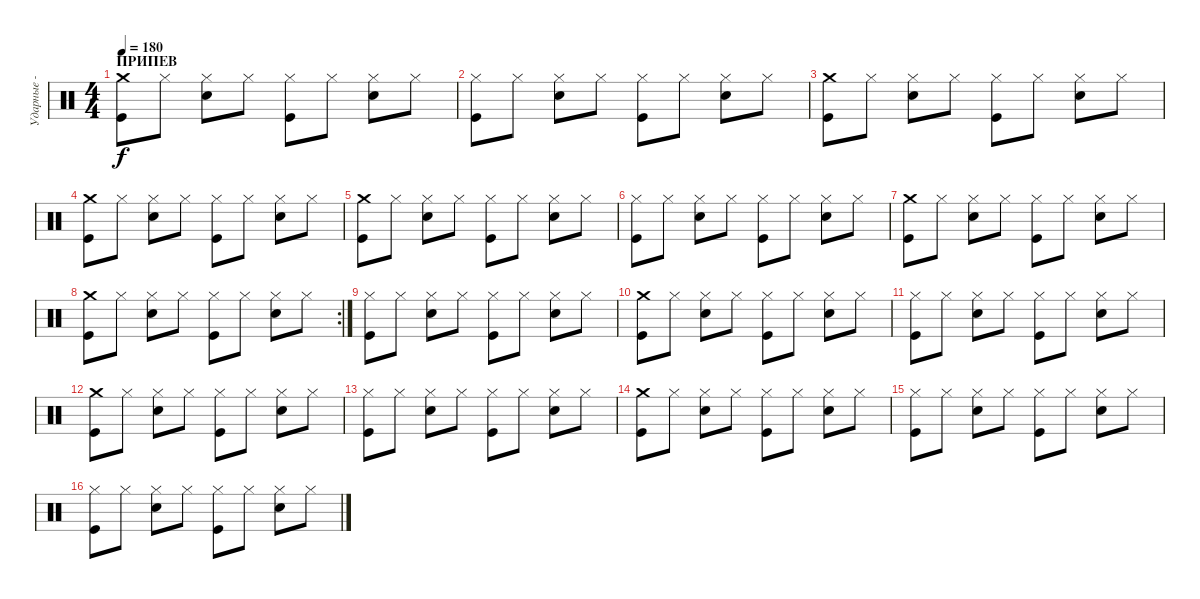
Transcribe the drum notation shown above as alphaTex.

\track ("Ударные - Томми Рамон" "Ударные - ") {instrument percussion}
\staff {score}
\articulation defaults
\ts (4 4)
\section ("" "ПРИПЕВ")
\tempo 180
\clef neutral
\ks c
("Crash medium (hit)" "Kick (hit)").8{dy f} "Hi-Hat (closed)".8 ("Hi-Hat (closed)" "Snare (hit) 2").8 "Hi-Hat (closed)".8 ("Hi-Hat (closed)" "Kick (hit)").8 "Hi-Hat (closed)".8 ("Hi-Hat (closed)" "Snare (hit) 2").8 "Hi-Hat (closed)".8 |
("Hi-Hat (closed)" "Kick (hit)").8 "Hi-Hat (closed)".8 ("Hi-Hat (closed)" "Snare (hit) 2").8 "Hi-Hat (closed)".8 ("Hi-Hat (closed)" "Kick (hit)").8 "Hi-Hat (closed)".8 ("Hi-Hat (closed)" "Snare (hit) 2").8 "Hi-Hat (closed)".8 |
("Crash medium (hit)" "Kick (hit)").8 "Hi-Hat (closed)".8 ("Hi-Hat (closed)" "Snare (hit) 2").8 "Hi-Hat (closed)".8 ("Hi-Hat (closed)" "Kick (hit)").8 "Hi-Hat (closed)".8 ("Hi-Hat (closed)" "Snare (hit) 2").8 "Hi-Hat (closed)".8 |
("Crash medium (hit)" "Kick (hit)").8 "Hi-Hat (closed)".8 ("Hi-Hat (closed)" "Snare (hit) 2").8 "Hi-Hat (closed)".8 ("Hi-Hat (closed)" "Kick (hit)").8 "Hi-Hat (closed)".8 ("Hi-Hat (closed)" "Snare (hit) 2").8 "Hi-Hat (closed)".8 |
("Crash medium (hit)" "Kick (hit)").8 "Hi-Hat (closed)".8 ("Hi-Hat (closed)" "Snare (hit) 2").8 "Hi-Hat (closed)".8 ("Hi-Hat (closed)" "Kick (hit)").8 "Hi-Hat (closed)".8 ("Hi-Hat (closed)" "Snare (hit) 2").8 "Hi-Hat (closed)".8 |
("Hi-Hat (closed)" "Kick (hit)").8 "Hi-Hat (closed)".8 ("Hi-Hat (closed)" "Snare (hit) 2").8 "Hi-Hat (closed)".8 ("Hi-Hat (closed)" "Kick (hit)").8 "Hi-Hat (closed)".8 ("Hi-Hat (closed)" "Snare (hit) 2").8 "Hi-Hat (closed)".8 |
("Crash medium (hit)" "Kick (hit)").8 "Hi-Hat (closed)".8 ("Hi-Hat (closed)" "Snare (hit) 2").8 "Hi-Hat (closed)".8 ("Hi-Hat (closed)" "Kick (hit)").8 "Hi-Hat (closed)".8 ("Hi-Hat (closed)" "Snare (hit) 2").8 "Hi-Hat (closed)".8 |
\rc 2
("Crash medium (hit)" "Kick (hit)").8 "Hi-Hat (closed)".8 ("Hi-Hat (closed)" "Snare (hit) 2").8 "Hi-Hat (closed)".8 ("Hi-Hat (closed)" "Kick (hit)").8 "Hi-Hat (closed)".8 ("Hi-Hat (closed)" "Snare (hit) 2").8 "Hi-Hat (closed)".8 |
("Hi-Hat (closed)" "Kick (hit)").8 "Hi-Hat (closed)".8 ("Hi-Hat (closed)" "Snare (hit) 2").8 "Hi-Hat (closed)".8 ("Hi-Hat (closed)" "Kick (hit)").8 "Hi-Hat (closed)".8 ("Hi-Hat (closed)" "Snare (hit) 2").8 "Hi-Hat (closed)".8 |
("Crash medium (hit)" "Kick (hit)").8 "Hi-Hat (closed)".8 ("Hi-Hat (closed)" "Snare (hit) 2").8 "Hi-Hat (closed)".8 ("Hi-Hat (closed)" "Kick (hit)").8 "Hi-Hat (closed)".8 ("Hi-Hat (closed)" "Snare (hit) 2").8 "Hi-Hat (closed)".8 |
("Hi-Hat (closed)" "Kick (hit)").8 "Hi-Hat (closed)".8 ("Hi-Hat (closed)" "Snare (hit) 2").8 "Hi-Hat (closed)".8 ("Hi-Hat (closed)" "Kick (hit)").8 "Hi-Hat (closed)".8 ("Hi-Hat (closed)" "Snare (hit) 2").8 "Hi-Hat (closed)".8 |
("Crash medium (hit)" "Kick (hit)").8 "Hi-Hat (closed)".8 ("Hi-Hat (closed)" "Snare (hit) 2").8 "Hi-Hat (closed)".8 ("Hi-Hat (closed)" "Kick (hit)").8 "Hi-Hat (closed)".8 ("Hi-Hat (closed)" "Snare (hit) 2").8 "Hi-Hat (closed)".8 |
("Hi-Hat (closed)" "Kick (hit)").8 "Hi-Hat (closed)".8 ("Hi-Hat (closed)" "Snare (hit) 2").8 "Hi-Hat (closed)".8 ("Hi-Hat (closed)" "Kick (hit)").8 "Hi-Hat (closed)".8 ("Hi-Hat (closed)" "Snare (hit) 2").8 "Hi-Hat (closed)".8 |
("Crash medium (hit)" "Kick (hit)").8 "Hi-Hat (closed)".8 ("Hi-Hat (closed)" "Snare (hit) 2").8 "Hi-Hat (closed)".8 ("Hi-Hat (closed)" "Kick (hit)").8 "Hi-Hat (closed)".8 ("Hi-Hat (closed)" "Snare (hit) 2").8 "Hi-Hat (closed)".8 |
("Hi-Hat (closed)" "Kick (hit)").8 "Hi-Hat (closed)".8 ("Hi-Hat (closed)" "Snare (hit) 2").8 "Hi-Hat (closed)".8 ("Hi-Hat (closed)" "Kick (hit)").8 "Hi-Hat (closed)".8 ("Hi-Hat (closed)" "Snare (hit) 2").8 "Hi-Hat (closed)".8 |
("Hi-Hat (closed)" "Kick (hit)").8 "Hi-Hat (closed)".8 ("Hi-Hat (closed)" "Snare (hit) 2").8 "Hi-Hat (closed)".8 ("Hi-Hat (closed)" "Kick (hit)").8 "Hi-Hat (closed)".8 ("Hi-Hat (closed)" "Snare (hit) 2").8 "Hi-Hat (closed)".8
